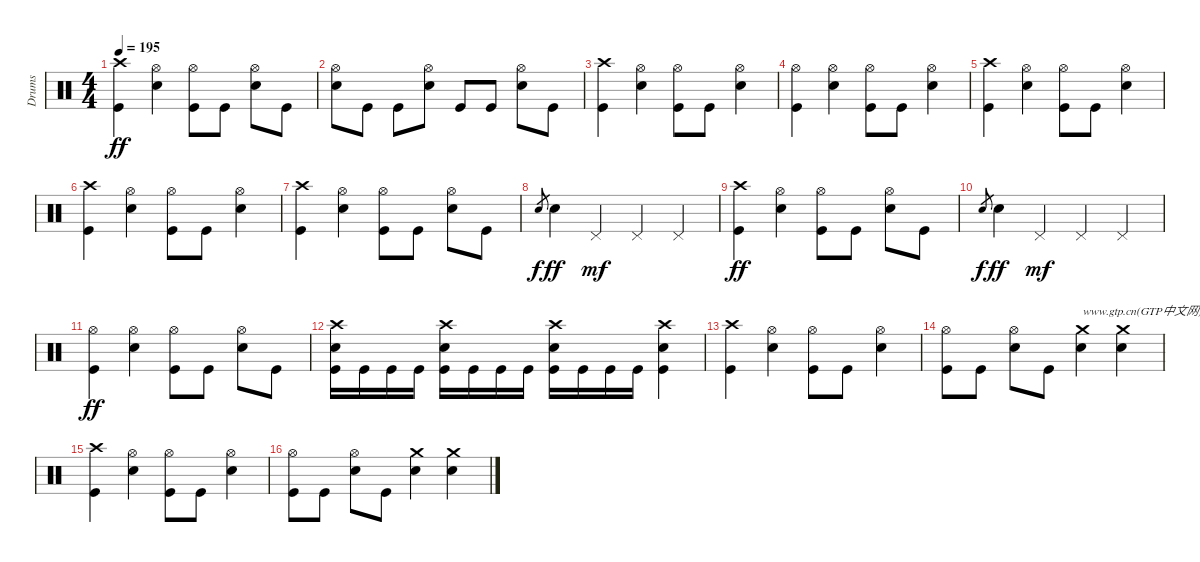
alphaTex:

\track ("Drums" "Drums") {instrument percussion}
\staff {score}
\articulation defaults
\ts (4 4)
\tempo 195
\clef neutral
\ks c
("Crash high (hit)" "Kick (hit)").4{dy ff} ("Hi-Hat (open)" "Snare (hit) 2").4 ("Hi-Hat (open)" "Kick (hit)").8 "Kick (hit)".8 ("Hi-Hat (open)" "Snare (hit) 2").8 "Kick (hit)".8 |
("Hi-Hat (open)" "Snare (hit) 2").8 "Kick (hit)".8 "Kick (hit)".8 ("Hi-Hat (open)" "Snare (hit) 2").8 "Kick (hit)".8 "Kick (hit)".8 ("Hi-Hat (open)" "Snare (hit) 2").8 "Kick (hit)".8 |
("Crash high (hit)" "Kick (hit)").4 ("Hi-Hat (open)" "Snare (hit) 2").4 ("Hi-Hat (open)" "Kick (hit)").8 "Kick (hit)".8 ("Hi-Hat (open)" "Snare (hit) 2").4 |
("Hi-Hat (open)" "Kick (hit)").4 ("Hi-Hat (open)" "Snare (hit) 2").4 ("Hi-Hat (open)" "Kick (hit)").8 "Kick (hit)".8 ("Hi-Hat (open)" "Snare (hit) 2").4 |
("Crash high (hit)" "Kick (hit)").4 ("Hi-Hat (open)" "Snare (hit) 2").4 ("Hi-Hat (open)" "Kick (hit)").8 "Kick (hit)".8 ("Hi-Hat (open)" "Snare (hit) 2").4 |
("Crash high (hit)" "Kick (hit)").4 ("Hi-Hat (open)" "Snare (hit) 2").4 ("Hi-Hat (open)" "Kick (hit)").8 "Kick (hit)".8 ("Hi-Hat (open)" "Snare (hit) 2").4 |
("Crash high (hit)" "Kick (hit)").4 ("Hi-Hat (open)" "Snare (hit) 2").4 ("Hi-Hat (open)" "Kick (hit)").8 "Kick (hit)".8 ("Hi-Hat (open)" "Snare (hit) 2").8 "Kick (hit)".8 |
"Snare (hit) 2".8{gr dy f} "Snare (hit) 2".4{dy ff} "Pedal Hi-Hat (hit)".4{dy mf} "Pedal Hi-Hat (hit)".4 "Pedal Hi-Hat (hit)".4 |
("Crash high (hit)" "Kick (hit)").4{dy ff} ("Hi-Hat (open)" "Snare (hit) 2").4 ("Hi-Hat (open)" "Kick (hit)").8 "Kick (hit)".8 ("Hi-Hat (open)" "Snare (hit) 2").8 "Kick (hit)".8 |
"Snare (hit) 2".8{gr dy f} "Snare (hit) 2".4{dy ff} "Pedal Hi-Hat (hit)".4{dy mf} "Pedal Hi-Hat (hit)".4 "Pedal Hi-Hat (hit)".4 |
("Hi-Hat (open)" "Kick (hit)").4{dy ff} ("Hi-Hat (open)" "Snare (hit) 2").4 ("Hi-Hat (open)" "Kick (hit)").8 "Kick (hit)".8 ("Hi-Hat (open)" "Snare (hit) 2").8 "Kick (hit)".8 |
("Crash high (hit)" "Snare (hit) 2" "Kick (hit)").16 "Kick (hit)".16 "Kick (hit)".16 "Kick (hit)".16 ("Crash high (hit)" "Snare (hit) 2" "Kick (hit)").16 "Kick (hit)".16 "Kick (hit)".16 "Kick (hit)".16 ("Crash high (hit)" "Snare (hit) 2" "Kick (hit)").16 "Kick (hit)".16 "Kick (hit)".16 "Kick (hit)".16 ("Crash high (hit)" "Snare (hit) 2" "Kick (hit)").4 |
("Crash high (hit)" "Kick (hit)").4 ("Hi-Hat (open)" "Snare (hit) 2").4 ("Hi-Hat (open)" "Kick (hit)").8 "Kick (hit)".8 ("Hi-Hat (open)" "Snare (hit) 2").4 |
("Hi-Hat (open)" "Kick (hit)").8 "Kick (hit)".8 ("Hi-Hat (open)" "Snare (hit) 2").8 "Kick (hit)".8 ("Crash medium (hit)" "Snare (hit) 2").4{txt "www.gtp.cn(GTP中文网)您提供优秀的GTP"} ("Crash medium (hit)" "Snare (hit) 2").4 |
("Crash high (hit)" "Kick (hit)").4 ("Hi-Hat (open)" "Snare (hit) 2").4 ("Hi-Hat (open)" "Kick (hit)").8 "Kick (hit)".8 ("Hi-Hat (open)" "Snare (hit) 2").4 |
("Hi-Hat (open)" "Kick (hit)").8 "Kick (hit)".8 ("Hi-Hat (open)" "Snare (hit) 2").8 "Kick (hit)".8 ("Crash medium (hit)" "Snare (hit) 2").4 ("Crash medium (hit)" "Snare (hit) 2").4
